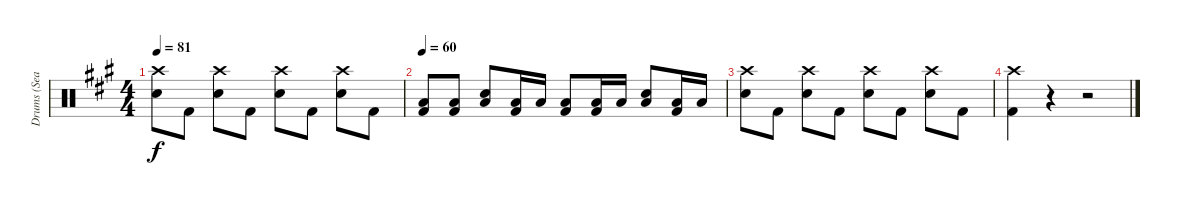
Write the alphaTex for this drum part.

\track ("Drums (Sean)" "Drums (Sea") {instrument percussion}
\staff {score}
\articulation defaults
\ts (4 4)
\tempo 81
\clef neutral
\ks f#minor
("Crash high (hit)" "Snare (hit) 2").8{dy f} "Kick (hit) 2".8 ("Crash high (hit)" "Snare (hit) 2").8 "Kick (hit) 2".8 ("Crash high (hit)" "Snare (hit) 2").8 "Kick (hit) 2".8 ("Crash high (hit)" "Snare (hit) 2").8 "Kick (hit) 2".8 |
\tempo 60
("Low Floor Tom (hit)" "Kick (hit) 2").8 ("Low Floor Tom (hit)" "Kick (hit) 2").8 ("Low Floor Tom (hit)" "Snare (hit) 2").8 ("Low Floor Tom (hit)" "Kick (hit) 2").16 "Low Floor Tom (hit)".16 ("Low Floor Tom (hit)" "Kick (hit) 2").8 ("Low Floor Tom (hit)" "Kick (hit) 2").16 "Low Floor Tom (hit)".16 ("Low Floor Tom (hit)" "Snare (hit) 2").8 ("Low Floor Tom (hit)" "Kick (hit) 2").16 "Low Floor Tom (hit)".16 |
("Crash high (hit)" "Snare (hit) 2").8 "Kick (hit) 2".8 ("Crash high (hit)" "Snare (hit) 2").8 "Kick (hit) 2".8 ("Crash high (hit)" "Snare (hit) 2").8 "Kick (hit) 2".8 ("Crash high (hit)" "Snare (hit) 2").8 "Kick (hit) 2".8 |
("Crash high (hit)" "Kick (hit) 2").4 r.4 r.2
